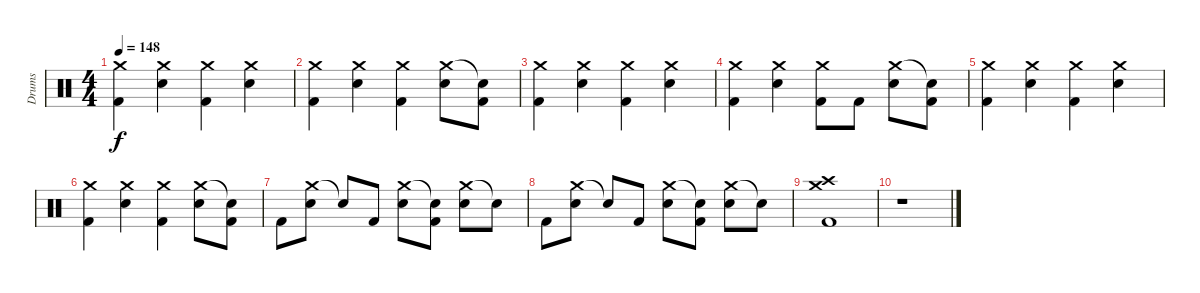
\track ("Drums" "Drums") {instrument percussion}
\staff {score}
\articulation defaults
\ts (4 4)
\tempo 148
\clef neutral
\ks c
("Crash medium (hit)" "Kick (hit) 2").4{dy f} ("Crash medium (hit)" "Electric Snare (hit)").4 ("Crash medium (hit)" "Kick (hit) 2").4 ("Crash medium (hit)" "Electric Snare (hit)").4 |
("Crash medium (hit)" "Kick (hit) 2").4 ("Crash medium (hit)" "Electric Snare (hit)").4 ("Crash medium (hit)" "Kick (hit) 2").4 ("Crash medium (hit)" "Electric Snare (hit)").8 ("Snare (hit)"{t} "Kick (hit) 2").8 |
("Crash medium (hit)" "Kick (hit) 2").4 ("Crash medium (hit)" "Electric Snare (hit)").4 ("Crash medium (hit)" "Kick (hit) 2").4 ("Crash medium (hit)" "Electric Snare (hit)").4 |
("Crash medium (hit)" "Kick (hit) 2").4 ("Crash medium (hit)" "Electric Snare (hit)").4 ("Crash medium (hit)" "Kick (hit) 2").8 "Kick (hit) 2".8 ("Crash medium (hit)" "Electric Snare (hit)").8 ("Snare (hit)"{t} "Kick (hit) 2").8 |
("Crash medium (hit)" "Kick (hit) 2").4 ("Crash medium (hit)" "Electric Snare (hit)").4 ("Crash medium (hit)" "Kick (hit) 2").4 ("Crash medium (hit)" "Electric Snare (hit)").4 |
("Crash medium (hit)" "Kick (hit) 2").4 ("Crash medium (hit)" "Electric Snare (hit)").4 ("Crash medium (hit)" "Kick (hit) 2").4 ("Crash medium (hit)" "Electric Snare (hit)").8 ("Snare (hit)"{t} "Kick (hit) 2").8 |
"Kick (hit) 2".8 ("Crash medium (hit)" "Electric Snare (hit)").8 "Snare (hit)"{t}.8 "Kick (hit) 2".8 ("Crash medium (hit)" "Electric Snare (hit)").8 ("Snare (hit)"{t} "Kick (hit) 2").8 ("Crash medium (hit)" "Electric Snare (hit)").8 "Snare (hit)"{t}.8 |
"Kick (hit) 2".8 ("Crash medium (hit)" "Electric Snare (hit)").8 "Snare (hit)"{t}.8 "Kick (hit) 2".8 ("Crash medium (hit)" "Electric Snare (hit)").8 ("Snare (hit)"{t} "Kick (hit) 2").8 ("Crash medium (hit)" "Electric Snare (hit)").8 "Snare (hit)"{t}.8 |
("Crash medium (hit)" "Crash high (hit)" "Kick (hit) 2").1 |
r.1
